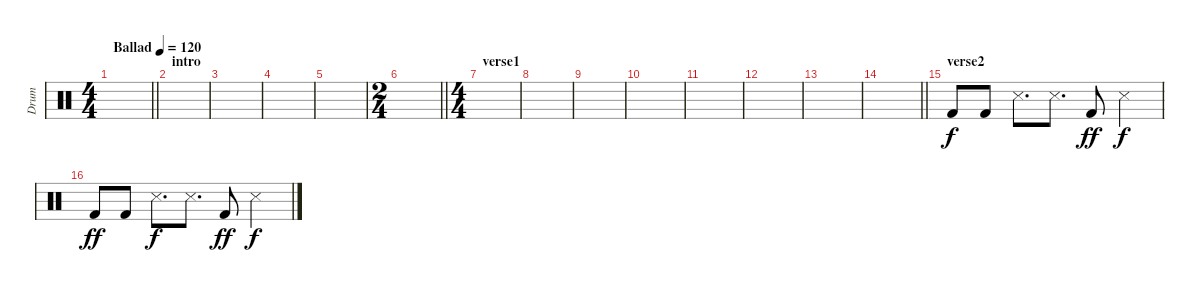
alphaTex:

\track ("Drum" "Drum") {instrument percussion}
\staff {score}
\articulation defaults
\ts (4 4)
\tempo (120 "Ballad")
\clef neutral
\barLineRight lightlight
\ks c
|
\section ("" "intro")
|
|
|
|
\ts (2 4)
\barLineRight lightlight
|
\ts (4 4)
\section ("" "verse1")
|
|
|
|
|
|
|
\barLineRight lightlight
|
\section ("" "verse2")
"Kick (hit) 2".8 "Kick (hit) 2".8 "Snare (side stick) 3".8{d dy f} "Snare (side stick) 3".8{d} "Kick (hit) 2".8{dy ff} "Snare (side stick) 3".4{dy f} |
"Kick (hit) 2".8{dy ff} "Kick (hit) 2".8 "Snare (side stick) 3".8{d dy f} "Snare (side stick) 3".8{d} "Kick (hit) 2".8{dy ff} "Snare (side stick) 3".4{dy f}
